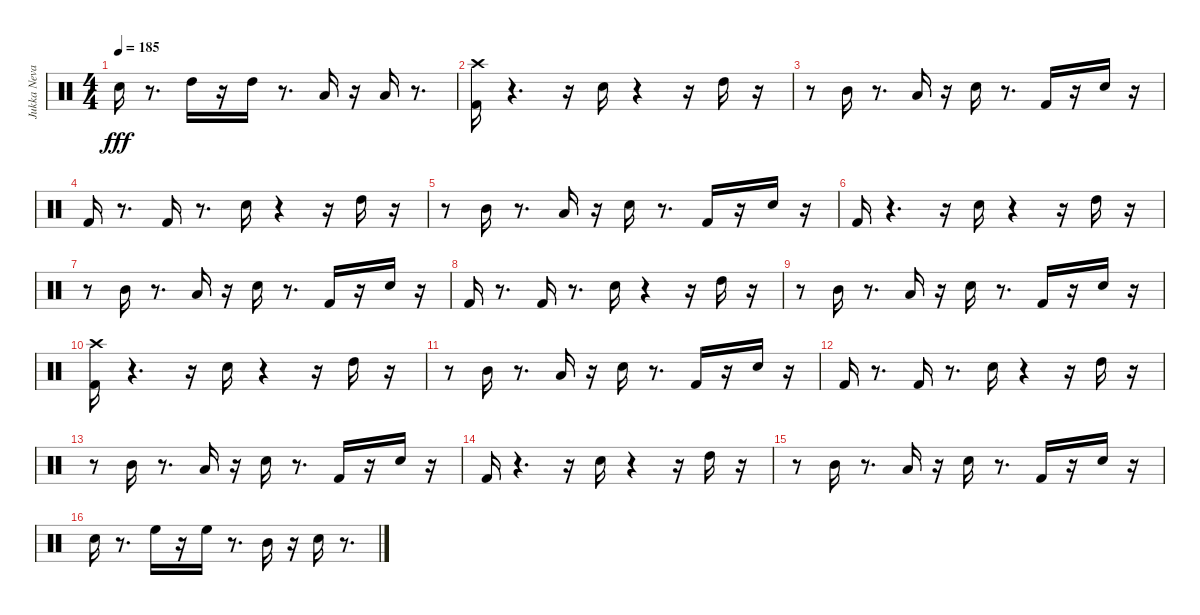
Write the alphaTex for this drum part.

\track ("Jukka Nevalinen" "Jukka Neva") {instrument percussion}
\staff {score}
\articulation defaults
\ts (4 4)
\tempo 185
\clef neutral
\ks c "Snare (hit) 2".16{dy fff}
r.8{d} "High Tom (hit)".16 r.16 "High Tom (hit)".16 r.8{d} "Low Tom (hit)".16 r.16 "Low Tom (hit)".16 r.8{d} |
("Crash high (hit)" "Kick (hit) 2").16 r.4{d} r.16 "Snare (hit) 2".16 r.4 r.16 "High Tom (hit)".16 r.16 |
r.8 "Mid Tom (hit)".16 r.8{d} "Low Tom (hit)".16 r.16 "Snare (hit) 2".16 r.8{d} "Kick (hit) 2".16 r.16 "Snare (hit) 2".16 r.16 |
"Kick (hit) 2".16 r.8{d} "Kick (hit) 2".16 r.8{d} "Snare (hit) 2".16 r.4 r.16 "High Tom (hit)".16 r.16 |
r.8 "Mid Tom (hit)".16 r.8{d} "Low Tom (hit)".16 r.16 "Snare (hit) 2".16 r.8{d} "Kick (hit) 2".16 r.16 "Snare (hit) 2".16 r.16 |
"Kick (hit) 2".16 r.4{d} r.16 "Snare (hit) 2".16 r.4 r.16 "High Tom (hit)".16 r.16 |
r.8 "Mid Tom (hit)".16 r.8{d} "Low Tom (hit)".16 r.16 "Snare (hit) 2".16 r.8{d} "Kick (hit) 2".16 r.16 "Snare (hit) 2".16 r.16 |
"Kick (hit) 2".16 r.8{d} "Kick (hit) 2".16 r.8{d} "Snare (hit) 2".16 r.4 r.16 "High Tom (hit)".16 r.16 |
r.8 "Mid Tom (hit)".16 r.8{d} "Low Tom (hit)".16 r.16 "Snare (hit) 2".16 r.8{d} "Kick (hit) 2".16 r.16 "Snare (hit) 2".16 r.16 |
("Crash high (hit)" "Kick (hit) 2").16 r.4{d} r.16 "Snare (hit) 2".16 r.4 r.16 "High Tom (hit)".16 r.16 |
r.8 "Mid Tom (hit)".16 r.8{d} "Low Tom (hit)".16 r.16 "Snare (hit) 2".16 r.8{d} "Kick (hit) 2".16 r.16 "Snare (hit) 2".16 r.16 |
"Kick (hit) 2".16 r.8{d} "Kick (hit) 2".16 r.8{d} "Snare (hit) 2".16 r.4 r.16 "High Tom (hit)".16 r.16 |
r.8 "Mid Tom (hit)".16 r.8{d} "Low Tom (hit)".16 r.16 "Snare (hit) 2".16 r.8{d} "Kick (hit) 2".16 r.16 "Snare (hit) 2".16 r.16 |
"Kick (hit) 2".16 r.4{d} r.16 "Snare (hit) 2".16 r.4 r.16 "High Tom (hit)".16 r.16 |
r.8 "Mid Tom (hit)".16 r.8{d} "Low Tom (hit)".16 r.16 "Snare (hit) 2".16 r.8{d} "Kick (hit) 2".16 r.16 "Snare (hit) 2".16 r.16 |
"Snare (hit) 2".16 r.8{d} "High Floor Tom (hit)".16 r.16 "High Floor Tom (hit)".16 r.8{d} "Mid Tom (hit)".16 r.16 "Snare (hit) 2".16 r.8{d}
